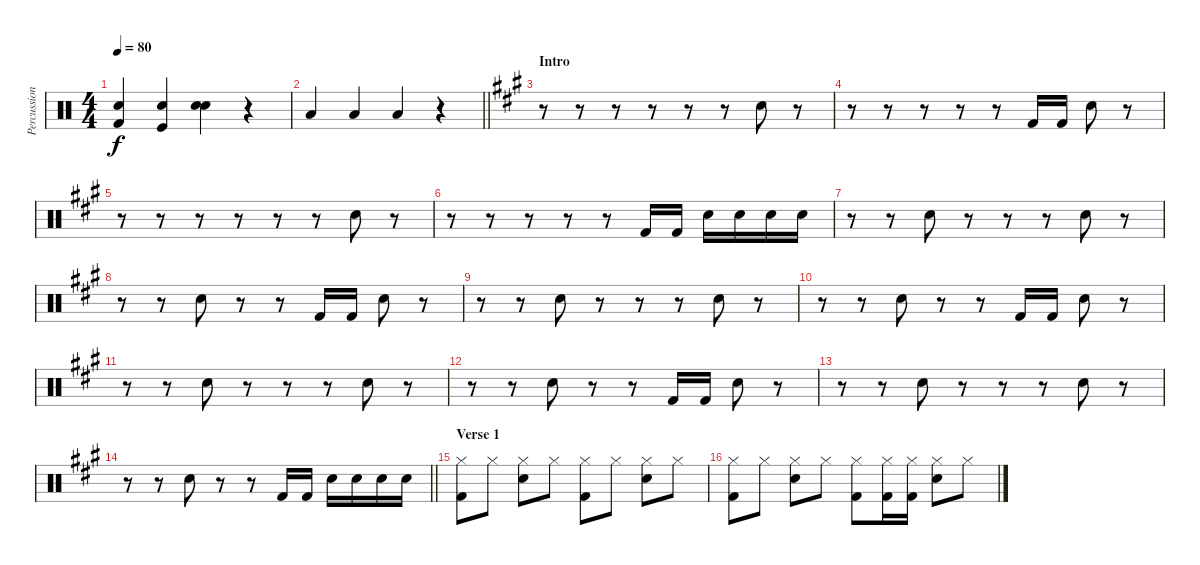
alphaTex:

\track ("Percussion" "Percussion") {instrument percussion}
\staff {score}
\articulation defaults
\ts (4 4)
\tempo 80
\clef neutral
\ks c
("Snare (hit) 2" "Kick (hit) 2").4{dy f} ("Snare (hit) 2" "Kick (hit)").4 ("Snare (hit) 2" "Metronome (bell)").4 r.4 |
\barLineRight lightlight "Low Tom (hit)".4 "Low Tom (hit)".4 "Low Tom (hit)".4
r.4 |
\section ("" "Intro")
\ks a
r.8 r.8 r.8 r.8 r.8 r.8 "Snare (hit) 2".8 r.8 |
r.8 r.8 r.8 r.8 r.8 "Kick (hit) 2".16 "Kick (hit) 2".16 "Snare (hit) 2".8 r.8 |
r.8 r.8 r.8 r.8 r.8 r.8 "Snare (hit) 2".8 r.8 |
r.8 r.8 r.8 r.8 r.8 "Kick (hit) 2".16 "Kick (hit) 2".16 "Snare (hit) 2".16 "Snare (hit) 2".16 "Snare (hit) 2".16 "Snare (hit) 2".16 |
r.8 r.8 "Snare (hit) 2".8 r.8 r.8 r.8 "Snare (hit) 2".8 r.8 |
r.8 r.8 "Snare (hit) 2".8 r.8 r.8 "Kick (hit) 2".16 "Kick (hit) 2".16 "Snare (hit) 2".8 r.8 |
r.8 r.8 "Snare (hit) 2".8 r.8 r.8 r.8 "Snare (hit) 2".8 r.8 |
r.8 r.8 "Snare (hit) 2".8 r.8 r.8 "Kick (hit) 2".16 "Kick (hit) 2".16 "Snare (hit) 2".8 r.8 |
r.8 r.8 "Snare (hit) 2".8 r.8 r.8 r.8 "Snare (hit) 2".8 r.8 |
r.8 r.8 "Snare (hit) 2".8 r.8 r.8 "Kick (hit) 2".16 "Kick (hit) 2".16 "Snare (hit) 2".8 r.8 |
r.8 r.8 "Snare (hit) 2".8 r.8 r.8 r.8 "Snare (hit) 2".8 r.8 |
\barLineRight lightlight
r.8 r.8 "Snare (hit) 2".8 r.8 r.8 "Kick (hit) 2".16 "Kick (hit) 2".16 "Snare (hit) 2".16 "Snare (hit) 2".16 "Snare (hit) 2".16 "Snare (hit) 2".16 |
\section ("" "Verse 1")
("Hi-Hat (closed)" "Kick (hit) 2").8 "Hi-Hat (closed)".8 ("Hi-Hat (closed)" "Snare (hit) 2").8 "Hi-Hat (closed)".8 ("Hi-Hat (closed)" "Kick (hit) 2").8 "Hi-Hat (closed)".8 ("Hi-Hat (closed)" "Snare (hit) 2").8 "Hi-Hat (closed)".8 |
("Hi-Hat (closed)" "Kick (hit) 2").8 "Hi-Hat (closed)".8 ("Hi-Hat (closed)" "Snare (hit) 2").8 "Hi-Hat (closed)".8 ("Hi-Hat (closed)" "Kick (hit) 2").8 ("Hi-Hat (closed)" "Kick (hit) 2").16 ("Hi-Hat (closed)" "Kick (hit) 2").16 ("Hi-Hat (closed)" "Snare (hit) 2").8 "Hi-Hat (closed)".8
